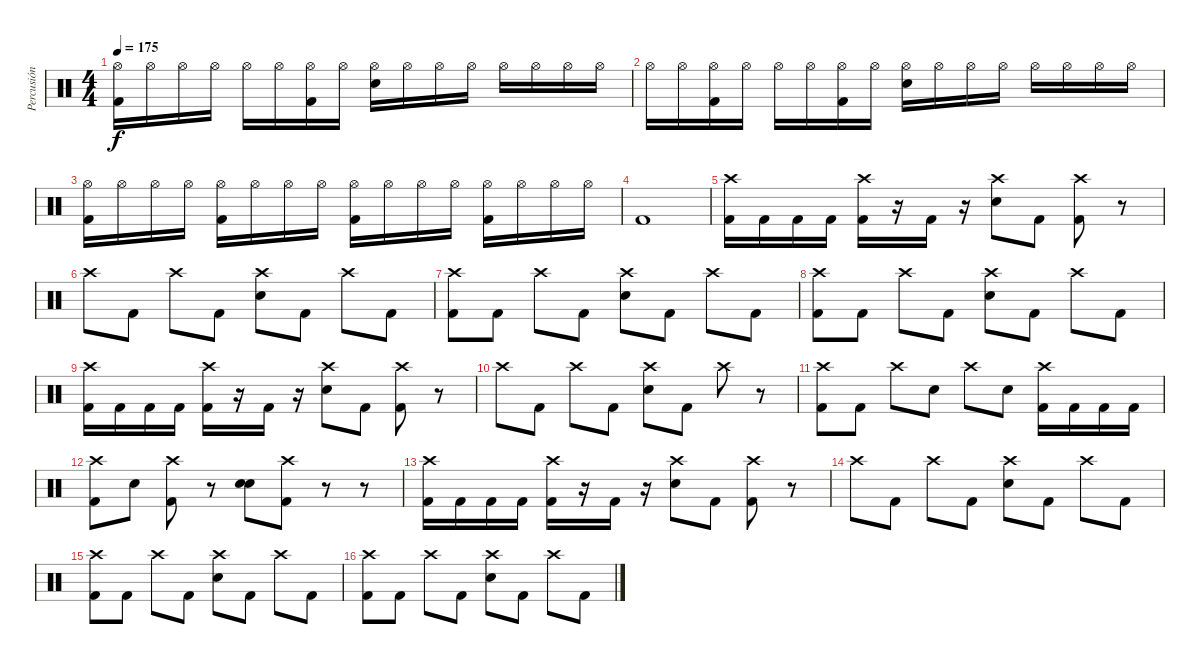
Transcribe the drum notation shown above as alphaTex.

\track ("Percusión" "Percusión") {instrument percussion}
\staff {score}
\articulation defaults
\ts (4 4)
\tempo 175
\clef neutral
\ks c
("Hi-Hat (open)" "Kick (hit) 2").16{dy f} "Hi-Hat (open)".16 "Hi-Hat (open)".16 "Hi-Hat (open)".16 "Hi-Hat (open)".16 "Hi-Hat (open)".16 ("Hi-Hat (open)" "Kick (hit) 2").16 "Hi-Hat (open)".16 ("Hi-Hat (open)" "Electric Snare (hit)").16 "Hi-Hat (open)".16 "Hi-Hat (open)".16 "Hi-Hat (open)".16 "Hi-Hat (open)".16 "Hi-Hat (open)".16 "Hi-Hat (open)".16 "Hi-Hat (open)".16 |
"Hi-Hat (open)".16 "Hi-Hat (open)".16 ("Hi-Hat (open)" "Kick (hit) 2").16 "Hi-Hat (open)".16 "Hi-Hat (open)".16 "Hi-Hat (open)".16 ("Hi-Hat (open)" "Kick (hit) 2").16 "Hi-Hat (open)".16 ("Hi-Hat (open)" "Electric Snare (hit)").16 "Hi-Hat (open)".16 "Hi-Hat (open)".16 "Hi-Hat (open)".16 "Hi-Hat (open)".16 "Hi-Hat (open)".16 "Hi-Hat (open)".16 "Hi-Hat (open)".16 |
("Hi-Hat (open)" "Kick (hit) 2").16 "Hi-Hat (open)".16 "Hi-Hat (open)".16 "Hi-Hat (open)".16 ("Hi-Hat (open)" "Kick (hit) 2").16 "Hi-Hat (open)".16 "Hi-Hat (open)".16 "Hi-Hat (open)".16 ("Hi-Hat (open)" "Kick (hit) 2").16 "Hi-Hat (open)".16 "Hi-Hat (open)".16 "Hi-Hat (open)".16 ("Hi-Hat (open)" "Kick (hit) 2").16 "Hi-Hat (open)".16 "Hi-Hat (open)".16 "Hi-Hat (open)".16 |
"Kick (hit) 2".1 |
("Crash high (hit)" "Kick (hit) 2").16 "Kick (hit) 2".16 "Kick (hit) 2".16 "Kick (hit) 2".16 ("Crash high (hit)" "Kick (hit) 2").16 r.16 "Kick (hit) 2".16 r.16 ("Crash high (hit)" "Electric Snare (hit)").8 "Kick (hit) 2".8 ("Crash high (hit)" "Kick (hit) 2").8 r.8 |
"Crash high (hit)".8 "Kick (hit) 2".8 "Crash high (hit)".8 "Kick (hit) 2".8 ("Crash high (hit)" "Electric Snare (hit)").8 "Kick (hit) 2".8 "Crash high (hit)".8 "Kick (hit) 2".8 |
("Crash high (hit)" "Kick (hit) 2").8 "Kick (hit) 2".8 "Crash high (hit)".8 "Kick (hit) 2".8 ("Crash high (hit)" "Electric Snare (hit)").8 "Kick (hit) 2".8 "Crash high (hit)".8 "Kick (hit) 2".8 |
("Crash high (hit)" "Kick (hit) 2").8 "Kick (hit) 2".8 "Crash high (hit)".8 "Kick (hit) 2".8 ("Crash high (hit)" "Electric Snare (hit)").8 "Kick (hit) 2".8 "Crash high (hit)".8 "Kick (hit) 2".8 |
("Crash high (hit)" "Kick (hit) 2").16 "Kick (hit) 2".16 "Kick (hit) 2".16 "Kick (hit) 2".16 ("Crash high (hit)" "Kick (hit) 2").16 r.16 "Kick (hit) 2".16 r.16 ("Crash high (hit)" "Electric Snare (hit)").8 "Kick (hit) 2".8 ("Crash high (hit)" "Kick (hit) 2").8 r.8 |
"Crash high (hit)".8 "Kick (hit) 2".8 "Crash high (hit)".8 "Kick (hit) 2".8 ("Crash high (hit)" "Electric Snare (hit)").8 "Kick (hit) 2".8 "Crash high (hit)".8 r.8 |
("Crash high (hit)" "Kick (hit) 2").8 "Kick (hit) 2".8 "Crash high (hit)".8 "Electric Snare (hit)".8 "Crash high (hit)".8 "Electric Snare (hit)".8 ("Crash high (hit)" "Kick (hit) 2").16 "Kick (hit) 2".16 "Kick (hit) 2".16 "Kick (hit) 2".16 |
("Crash high (hit)" "Kick (hit) 2").8 "Electric Snare (hit)".8 ("Crash high (hit)" "Kick (hit) 2").8 r.8 ("Electric Snare (hit)" "Electric Snare (hit)").8{bu 60} ("Crash high (hit)" "Kick (hit) 2").8 r.8 r.8 |
("Crash high (hit)" "Kick (hit) 2").16 "Kick (hit) 2".16 "Kick (hit) 2".16 "Kick (hit) 2".16 ("Crash high (hit)" "Kick (hit) 2").16 r.16 "Kick (hit) 2".16 r.16 ("Crash high (hit)" "Electric Snare (hit)").8 "Kick (hit) 2".8 ("Crash high (hit)" "Kick (hit) 2").8 r.8 |
"Crash high (hit)".8 "Kick (hit) 2".8 "Crash high (hit)".8 "Kick (hit) 2".8 ("Crash high (hit)" "Electric Snare (hit)").8 "Kick (hit) 2".8 "Crash high (hit)".8 "Kick (hit) 2".8 |
("Crash high (hit)" "Kick (hit) 2").8 "Kick (hit) 2".8 "Crash high (hit)".8 "Kick (hit) 2".8 ("Crash high (hit)" "Electric Snare (hit)").8 "Kick (hit) 2".8 "Crash high (hit)".8 "Kick (hit) 2".8 |
("Crash high (hit)" "Kick (hit) 2").8 "Kick (hit) 2".8 "Crash high (hit)".8 "Kick (hit) 2".8 ("Crash high (hit)" "Electric Snare (hit)").8 "Kick (hit) 2".8 "Crash high (hit)".8 "Kick (hit) 2".8
